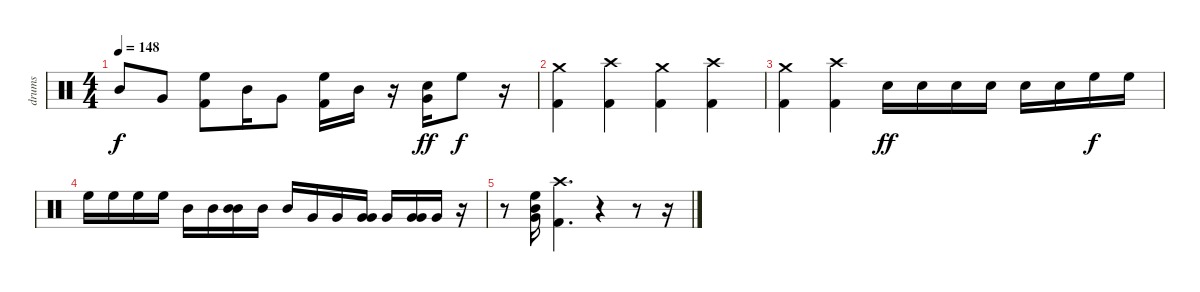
\track ("drums" "drums") {instrument percussion}
\staff {score}
\articulation defaults
\ts (4 4)
\tempo 148
\clef neutral
\ks c "Mid Tom (hit)".8{dy f} "Very Low Tom (hit)".8
("Kick (hit) 2" "High Floor Tom (hit)").8 "Mid Tom (hit)".16 "Very Low Tom (hit)".8 ("Kick (hit) 2" "High Floor Tom (hit)").16 "Mid Tom (hit)".16 r.16 ("Very Low Tom (hit)" "Snare (hit) 2").16{dy ff} "High Floor Tom (hit)".8{dy f} r.16 |
("Crash medium (hit)" "Kick (hit) 2").4 ("Crash high (hit)" "Kick (hit) 2").4 ("Crash medium (hit)" "Kick (hit) 2").4 ("Crash high (hit)" "Kick (hit) 2").4 |
("Crash medium (hit)" "Kick (hit) 2").4 ("Crash high (hit)" "Kick (hit) 2").4 "Snare (hit) 2".16{dy ff} "Snare (hit) 2".16 "Snare (hit) 2".16 "Snare (hit) 2".16 "Snare (hit) 2".16 "Snare (hit) 2".16 "High Floor Tom (hit)".16{dy f} "High Floor Tom (hit)".16 |
"High Floor Tom (hit)".16 "High Floor Tom (hit)".16 "High Floor Tom (hit)".16 "High Floor Tom (hit)".16 "Mid Tom (hit)".16 "Mid Tom (hit)".16 ("Mid Tom (hit)" "Mid Tom (hit)").16 "Mid Tom (hit)".16 "Mid Tom (hit)".16 "Very Low Tom (hit)".16 "Very Low Tom (hit)".16 ("Very Low Tom (hit)" "Very Low Tom (hit)").16 "Very Low Tom (hit)".16 ("Very Low Tom (hit)" "Very Low Tom (hit)").16 "Very Low Tom (hit)".16 r.16 |
r.8 ("High Floor Tom (hit)" "Mid Tom (hit)" "Very Low Tom (hit)").16 ("Crash high (hit)" "Kick (hit) 2").4{d} r.4 r.8 r.16
